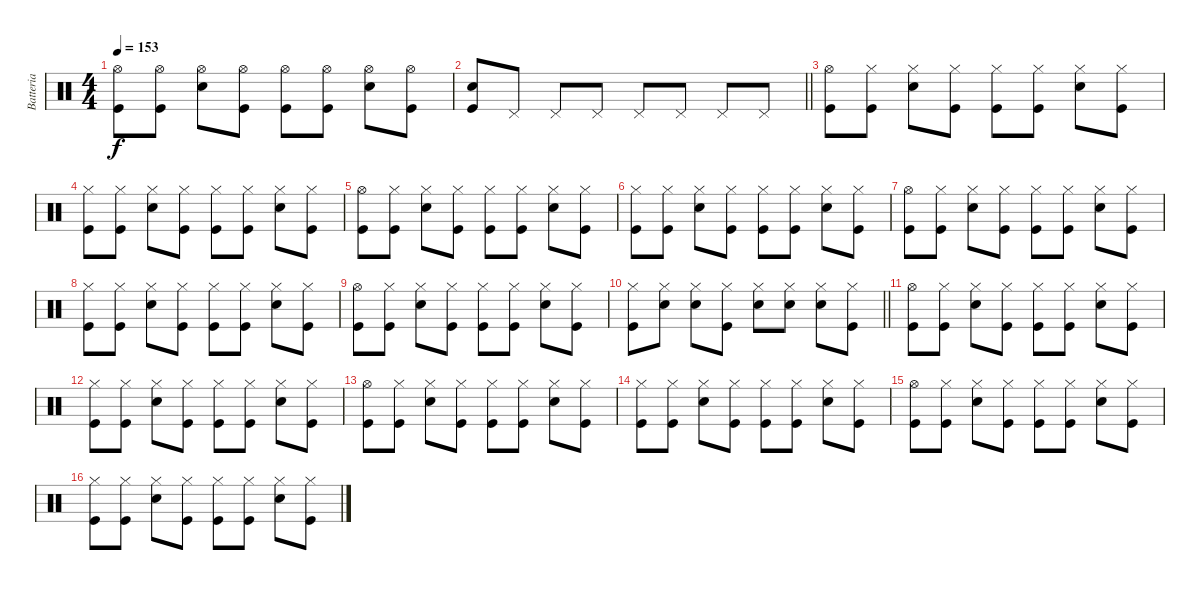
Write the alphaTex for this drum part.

\track ("Batteria" "Batteria") {instrument percussion}
\staff {score}
\articulation defaults
\ts (4 4)
\tempo 153
\clef neutral
\ks c
("Kick (hit)" "Hi-Hat (open)").8{dy f} ("Kick (hit)" "Hi-Hat (open)").8 ("Snare (hit) 2" "Hi-Hat (open)").8 ("Kick (hit)" "Hi-Hat (open)").8 ("Kick (hit)" "Hi-Hat (open)").8 ("Kick (hit)" "Hi-Hat (open)").8 ("Snare (hit) 2" "Hi-Hat (open)").8 ("Kick (hit)" "Hi-Hat (open)").8 |
\barLineRight lightlight
("Snare (hit) 2" "Kick (hit)").8 "Pedal Hi-Hat (hit)".8 "Pedal Hi-Hat (hit)".8 "Pedal Hi-Hat (hit)".8 "Pedal Hi-Hat (hit)".8 "Pedal Hi-Hat (hit)".8 "Pedal Hi-Hat (hit)".8 "Pedal Hi-Hat (hit)".8 |
("Kick (hit)" "Hi-Hat (open)").8 ("Kick (hit)" "Hi-Hat (closed)").8 ("Snare (hit) 2" "Hi-Hat (closed)").8 ("Kick (hit)" "Hi-Hat (closed)").8 ("Kick (hit)" "Hi-Hat (closed)").8 ("Kick (hit)" "Hi-Hat (closed)").8 ("Snare (hit) 2" "Hi-Hat (closed)").8 ("Kick (hit)" "Hi-Hat (closed)").8 |
("Kick (hit)" "Hi-Hat (closed)").8 ("Kick (hit)" "Hi-Hat (closed)").8 ("Snare (hit) 2" "Hi-Hat (closed)").8 ("Kick (hit)" "Hi-Hat (closed)").8 ("Kick (hit)" "Hi-Hat (closed)").8 ("Kick (hit)" "Hi-Hat (closed)").8 ("Snare (hit) 2" "Hi-Hat (closed)").8 ("Kick (hit)" "Hi-Hat (closed)").8 |
("Kick (hit)" "Hi-Hat (open)").8 ("Kick (hit)" "Hi-Hat (closed)").8 ("Snare (hit) 2" "Hi-Hat (closed)").8 ("Kick (hit)" "Hi-Hat (closed)").8 ("Kick (hit)" "Hi-Hat (closed)").8 ("Kick (hit)" "Hi-Hat (closed)").8 ("Snare (hit) 2" "Hi-Hat (closed)").8 ("Kick (hit)" "Hi-Hat (closed)").8 |
("Kick (hit)" "Hi-Hat (closed)").8 ("Kick (hit)" "Hi-Hat (closed)").8 ("Snare (hit) 2" "Hi-Hat (closed)").8 ("Kick (hit)" "Hi-Hat (closed)").8 ("Kick (hit)" "Hi-Hat (closed)").8 ("Kick (hit)" "Hi-Hat (closed)").8 ("Snare (hit) 2" "Hi-Hat (closed)").8 ("Kick (hit)" "Hi-Hat (closed)").8 |
("Kick (hit)" "Hi-Hat (open)").8 ("Kick (hit)" "Hi-Hat (closed)").8 ("Snare (hit) 2" "Hi-Hat (closed)").8 ("Kick (hit)" "Hi-Hat (closed)").8 ("Kick (hit)" "Hi-Hat (closed)").8 ("Kick (hit)" "Hi-Hat (closed)").8 ("Snare (hit) 2" "Hi-Hat (closed)").8 ("Kick (hit)" "Hi-Hat (closed)").8 |
("Kick (hit)" "Hi-Hat (closed)").8 ("Kick (hit)" "Hi-Hat (closed)").8 ("Snare (hit) 2" "Hi-Hat (closed)").8 ("Kick (hit)" "Hi-Hat (closed)").8 ("Kick (hit)" "Hi-Hat (closed)").8 ("Kick (hit)" "Hi-Hat (closed)").8 ("Snare (hit) 2" "Hi-Hat (closed)").8 ("Kick (hit)" "Hi-Hat (closed)").8 |
("Kick (hit)" "Hi-Hat (open)").8 ("Kick (hit)" "Hi-Hat (closed)").8 ("Snare (hit) 2" "Hi-Hat (closed)").8 ("Kick (hit)" "Hi-Hat (closed)").8 ("Kick (hit)" "Hi-Hat (closed)").8 ("Kick (hit)" "Hi-Hat (closed)").8 ("Snare (hit) 2" "Hi-Hat (closed)").8 ("Kick (hit)" "Hi-Hat (closed)").8 |
\barLineRight lightlight
("Kick (hit)" "Hi-Hat (closed)").8 ("Snare (hit) 2" "Hi-Hat (closed)").8 ("Snare (hit) 2" "Hi-Hat (closed)").8 ("Kick (hit)" "Hi-Hat (closed)").8 ("Snare (hit) 2" "Hi-Hat (closed)").8 ("Snare (hit) 2" "Hi-Hat (closed)").8 ("Snare (hit) 2" "Hi-Hat (closed)").8 ("Kick (hit)" "Hi-Hat (closed)").8 |
("Kick (hit)" "Hi-Hat (open)").8 ("Kick (hit)" "Hi-Hat (closed)").8 ("Snare (hit) 2" "Hi-Hat (closed)").8 ("Kick (hit)" "Hi-Hat (closed)").8 ("Kick (hit)" "Hi-Hat (closed)").8 ("Kick (hit)" "Hi-Hat (closed)").8 ("Snare (hit) 2" "Hi-Hat (closed)").8 ("Kick (hit)" "Hi-Hat (closed)").8 |
("Kick (hit)" "Hi-Hat (closed)").8 ("Kick (hit)" "Hi-Hat (closed)").8 ("Snare (hit) 2" "Hi-Hat (closed)").8 ("Kick (hit)" "Hi-Hat (closed)").8 ("Kick (hit)" "Hi-Hat (closed)").8 ("Kick (hit)" "Hi-Hat (closed)").8 ("Snare (hit) 2" "Hi-Hat (closed)").8 ("Kick (hit)" "Hi-Hat (closed)").8 |
("Kick (hit)" "Hi-Hat (open)").8 ("Kick (hit)" "Hi-Hat (closed)").8 ("Snare (hit) 2" "Hi-Hat (closed)").8 ("Kick (hit)" "Hi-Hat (closed)").8 ("Kick (hit)" "Hi-Hat (closed)").8 ("Kick (hit)" "Hi-Hat (closed)").8 ("Snare (hit) 2" "Hi-Hat (closed)").8 ("Kick (hit)" "Hi-Hat (closed)").8 |
("Kick (hit)" "Hi-Hat (closed)").8 ("Kick (hit)" "Hi-Hat (closed)").8 ("Snare (hit) 2" "Hi-Hat (closed)").8 ("Kick (hit)" "Hi-Hat (closed)").8 ("Kick (hit)" "Hi-Hat (closed)").8 ("Kick (hit)" "Hi-Hat (closed)").8 ("Snare (hit) 2" "Hi-Hat (closed)").8 ("Kick (hit)" "Hi-Hat (closed)").8 |
("Kick (hit)" "Hi-Hat (open)").8 ("Kick (hit)" "Hi-Hat (closed)").8 ("Snare (hit) 2" "Hi-Hat (closed)").8 ("Kick (hit)" "Hi-Hat (closed)").8 ("Kick (hit)" "Hi-Hat (closed)").8 ("Kick (hit)" "Hi-Hat (closed)").8 ("Snare (hit) 2" "Hi-Hat (closed)").8 ("Kick (hit)" "Hi-Hat (closed)").8 |
("Kick (hit)" "Hi-Hat (closed)").8 ("Kick (hit)" "Hi-Hat (closed)").8 ("Snare (hit) 2" "Hi-Hat (closed)").8 ("Kick (hit)" "Hi-Hat (closed)").8 ("Kick (hit)" "Hi-Hat (closed)").8 ("Kick (hit)" "Hi-Hat (closed)").8 ("Snare (hit) 2" "Hi-Hat (closed)").8 ("Kick (hit)" "Hi-Hat (closed)").8
